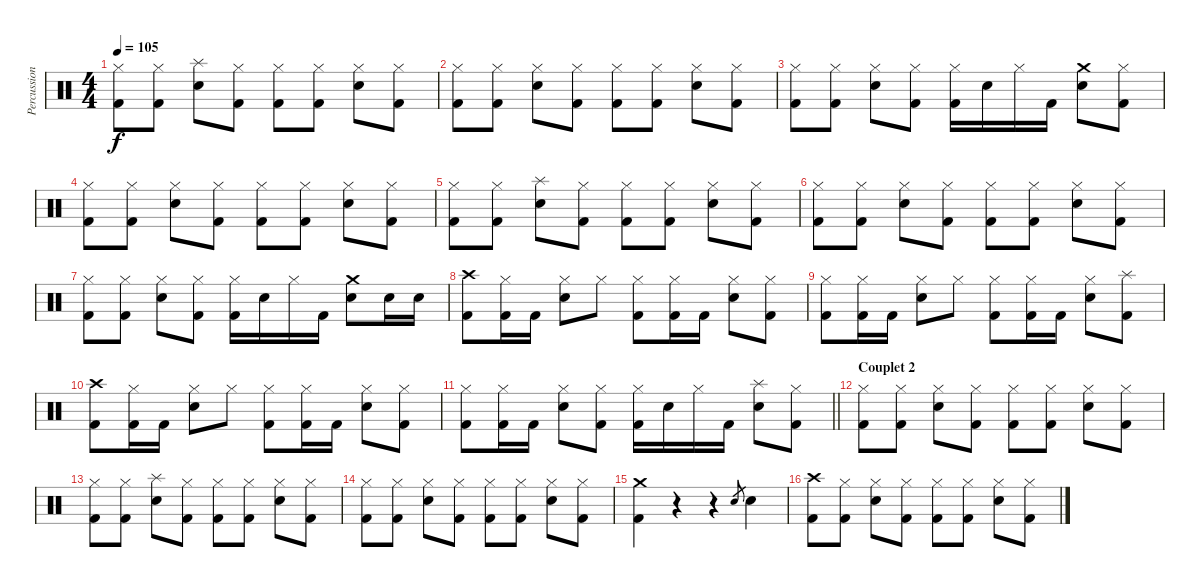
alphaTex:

\track ("Percussions" "Percussion") {instrument percussion}
\staff {score}
\articulation defaults
\ts (4 4)
\tempo 105
\clef neutral
\ks c
("Hi-Hat (closed)" "Kick (hit) 2").8{dy f} ("Hi-Hat (closed)" "Kick (hit) 2").8 ("Splash (hit)" "Electric Snare (hit)").8 ("Hi-Hat (closed)" "Kick (hit) 2").8 ("Hi-Hat (closed)" "Kick (hit) 2").8 ("Hi-Hat (closed)" "Kick (hit) 2").8 ("Hi-Hat (closed)" "Electric Snare (hit)").8 ("Hi-Hat (closed)" "Kick (hit) 2").8 |
("Hi-Hat (closed)" "Kick (hit) 2").8 ("Hi-Hat (closed)" "Kick (hit) 2").8 ("Hi-Hat (closed)" "Electric Snare (hit)").8 ("Hi-Hat (closed)" "Kick (hit) 2").8 ("Hi-Hat (closed)" "Kick (hit) 2").8 ("Hi-Hat (closed)" "Kick (hit) 2").8 ("Hi-Hat (closed)" "Electric Snare (hit)").8 ("Hi-Hat (closed)" "Kick (hit) 2").8 |
("Hi-Hat (closed)" "Kick (hit) 2").8 ("Hi-Hat (closed)" "Kick (hit) 2").8 ("Hi-Hat (closed)" "Electric Snare (hit)").8 ("Hi-Hat (closed)" "Kick (hit) 2").8 ("Hi-Hat (closed)" "Kick (hit) 2").16 "Electric Snare (hit)".16 "Hi-Hat (closed)".16 "Kick (hit) 2".16 ("Crash medium (hit)" "Electric Snare (hit)").8 ("Hi-Hat (closed)" "Kick (hit) 2").8 |
("Hi-Hat (closed)" "Kick (hit) 2").8 ("Hi-Hat (closed)" "Kick (hit) 2").8 ("Hi-Hat (closed)" "Electric Snare (hit)").8 ("Hi-Hat (closed)" "Kick (hit) 2").8 ("Hi-Hat (closed)" "Kick (hit) 2").8 ("Hi-Hat (closed)" "Kick (hit) 2").8 ("Hi-Hat (closed)" "Electric Snare (hit)").8 ("Hi-Hat (closed)" "Kick (hit) 2").8 |
("Hi-Hat (closed)" "Kick (hit) 2").8 ("Hi-Hat (closed)" "Kick (hit) 2").8 ("Splash (hit)" "Electric Snare (hit)").8 ("Hi-Hat (closed)" "Kick (hit) 2").8 ("Hi-Hat (closed)" "Kick (hit) 2").8 ("Hi-Hat (closed)" "Kick (hit) 2").8 ("Hi-Hat (closed)" "Electric Snare (hit)").8 ("Hi-Hat (closed)" "Kick (hit) 2").8 |
("Hi-Hat (closed)" "Kick (hit) 2").8 ("Hi-Hat (closed)" "Kick (hit) 2").8 ("Hi-Hat (closed)" "Electric Snare (hit)").8 ("Hi-Hat (closed)" "Kick (hit) 2").8 ("Hi-Hat (closed)" "Kick (hit) 2").8 ("Hi-Hat (closed)" "Kick (hit) 2").8 ("Hi-Hat (closed)" "Electric Snare (hit)").8 ("Hi-Hat (closed)" "Kick (hit) 2").8 |
("Hi-Hat (closed)" "Kick (hit) 2").8 ("Hi-Hat (closed)" "Kick (hit) 2").8 ("Hi-Hat (closed)" "Electric Snare (hit)").8 ("Hi-Hat (closed)" "Kick (hit) 2").8 ("Hi-Hat (closed)" "Kick (hit) 2").16 "Electric Snare (hit)".16 "Hi-Hat (closed)".16 "Kick (hit) 2".16 ("Crash medium (hit)" "Electric Snare (hit)").8 "Electric Snare (hit)".16 "Electric Snare (hit)".16 |
("Crash high (hit)" "Kick (hit) 2").8 ("Hi-Hat (closed)" "Kick (hit) 2").16 "Kick (hit) 2".16 ("Hi-Hat (closed)" "Electric Snare (hit)").8 "Hi-Hat (closed)".8 ("Hi-Hat (closed)" "Kick (hit) 2").8 ("Hi-Hat (closed)" "Kick (hit) 2").16 "Kick (hit) 2".16 ("Hi-Hat (closed)" "Electric Snare (hit)").8 ("Hi-Hat (closed)" "Kick (hit) 2").8 |
("Hi-Hat (closed)" "Kick (hit) 2").8 ("Hi-Hat (closed)" "Kick (hit) 2").16 "Kick (hit) 2".16 ("Hi-Hat (closed)" "Electric Snare (hit)").8 "Hi-Hat (closed)".8 ("Hi-Hat (closed)" "Kick (hit) 2").8 ("Hi-Hat (closed)" "Kick (hit) 2").16 "Kick (hit) 2".16 ("Hi-Hat (closed)" "Electric Snare (hit)").8 ("Splash (hit)" "Kick (hit) 2").8 |
("Crash high (hit)" "Kick (hit) 2").8 ("Hi-Hat (closed)" "Kick (hit) 2").16 "Kick (hit) 2".16 ("Hi-Hat (closed)" "Electric Snare (hit)").8 "Hi-Hat (closed)".8 ("Hi-Hat (closed)" "Kick (hit) 2").8 ("Hi-Hat (closed)" "Kick (hit) 2").16 "Kick (hit) 2".16 ("Hi-Hat (closed)" "Electric Snare (hit)").8 ("Hi-Hat (closed)" "Kick (hit) 2").8 |
\barLineRight lightlight
("Hi-Hat (closed)" "Kick (hit) 2").8 ("Hi-Hat (closed)" "Kick (hit) 2").16 "Kick (hit) 2".16 ("Hi-Hat (closed)" "Electric Snare (hit)").8 ("Hi-Hat (closed)" "Kick (hit) 2").8 ("Hi-Hat (closed)" "Kick (hit) 2").16 "Electric Snare (hit)".16 "Hi-Hat (closed)".16 "Kick (hit) 2".16 ("Splash (hit)" "Electric Snare (hit)").8 ("Hi-Hat (closed)" "Kick (hit) 2").8 |
\section ("" "Couplet 2")
("Hi-Hat (closed)" "Kick (hit) 2").8 ("Hi-Hat (closed)" "Kick (hit) 2").8 ("Hi-Hat (closed)" "Electric Snare (hit)").8 ("Hi-Hat (closed)" "Kick (hit) 2").8 ("Hi-Hat (closed)" "Kick (hit) 2").8 ("Hi-Hat (closed)" "Kick (hit) 2").8 ("Hi-Hat (closed)" "Electric Snare (hit)").8 ("Hi-Hat (closed)" "Kick (hit) 2").8 |
("Hi-Hat (closed)" "Kick (hit) 2").8 ("Hi-Hat (closed)" "Kick (hit) 2").8 ("Splash (hit)" "Electric Snare (hit)").8 ("Hi-Hat (closed)" "Kick (hit) 2").8 ("Hi-Hat (closed)" "Kick (hit) 2").8 ("Hi-Hat (closed)" "Kick (hit) 2").8 ("Hi-Hat (closed)" "Electric Snare (hit)").8 ("Hi-Hat (closed)" "Kick (hit) 2").8 |
("Hi-Hat (closed)" "Kick (hit) 2").8 ("Hi-Hat (closed)" "Kick (hit) 2").8 ("Hi-Hat (closed)" "Electric Snare (hit)").8 ("Hi-Hat (closed)" "Kick (hit) 2").8 ("Hi-Hat (closed)" "Kick (hit) 2").8 ("Hi-Hat (closed)" "Kick (hit) 2").8 ("Hi-Hat (closed)" "Electric Snare (hit)").8 ("Hi-Hat (closed)" "Kick (hit) 2").8 |
("Crash medium (hit)" "Kick (hit) 2").4 r.4 r.4 "Electric Snare (hit)".8{gr} "Electric Snare (hit)".4 |
("Crash high (hit)" "Kick (hit) 2").8 ("Hi-Hat (closed)" "Kick (hit) 2").8 ("Hi-Hat (closed)" "Electric Snare (hit)").8 ("Hi-Hat (closed)" "Kick (hit) 2").8 ("Hi-Hat (closed)" "Kick (hit) 2").8 ("Hi-Hat (closed)" "Kick (hit) 2").8 ("Hi-Hat (closed)" "Electric Snare (hit)").8 ("Hi-Hat (closed)" "Kick (hit) 2").8
